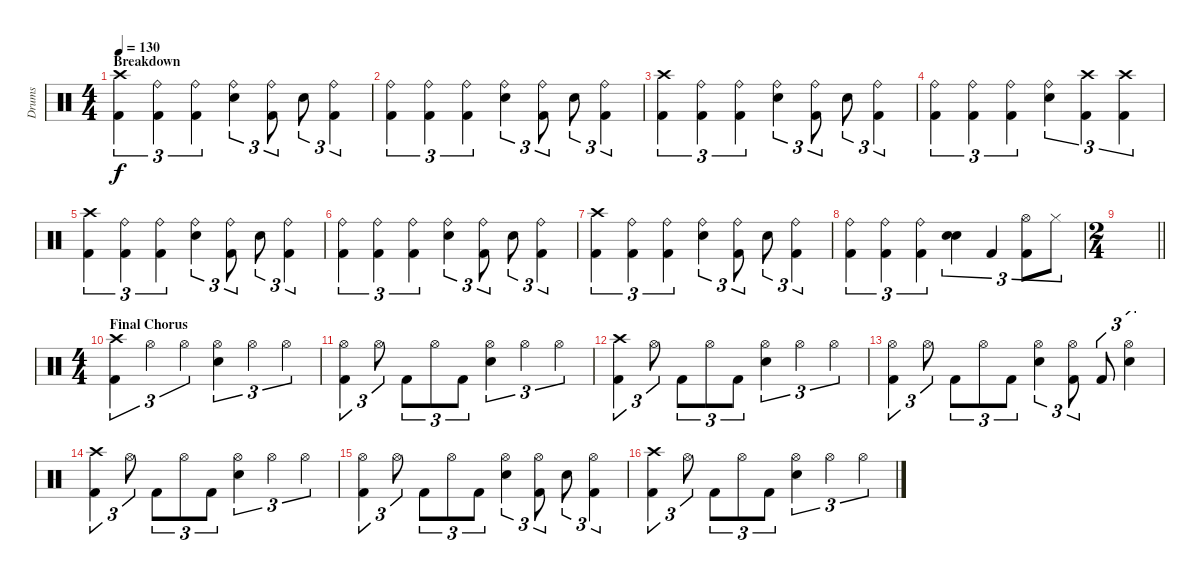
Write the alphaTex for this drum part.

\track ("Drums" "Drums") {instrument percussion}
\staff {score}
\articulation defaults
\ts (4 4)
\section ("" "Breakdown")
\tempo 130
\clef neutral
\ks c
("Crash high (hit)" "Kick (hit) 2").4{tu (3 2) dy f} ("Ride (bell)" "Kick (hit) 2").4{tu (3 2)} ("Ride (bell)" "Kick (hit) 2").4{tu (3 2)} ("Ride (bell)" "Electric Snare (hit)").4{tu (3 2)} ("Ride (bell)" "Kick (hit) 2").8{tu (3 2)} "Electric Snare (hit)".8{tu (3 2)} ("Ride (bell)" "Kick (hit) 2").4{tu (3 2)} |
("Ride (bell)" "Kick (hit) 2").4{tu (3 2)} ("Ride (bell)" "Kick (hit) 2").4{tu (3 2)} ("Ride (bell)" "Kick (hit) 2").4{tu (3 2)} ("Ride (bell)" "Electric Snare (hit)").4{tu (3 2)} ("Ride (bell)" "Kick (hit) 2").8{tu (3 2)} "Electric Snare (hit)".8{tu (3 2)} ("Ride (bell)" "Kick (hit) 2").4{tu (3 2)} |
("Crash high (hit)" "Kick (hit) 2").4{tu (3 2)} ("Ride (bell)" "Kick (hit) 2").4{tu (3 2)} ("Ride (bell)" "Kick (hit) 2").4{tu (3 2)} ("Ride (bell)" "Electric Snare (hit)").4{tu (3 2)} ("Ride (bell)" "Kick (hit) 2").8{tu (3 2)} "Electric Snare (hit)".8{tu (3 2)} ("Ride (bell)" "Kick (hit) 2").4{tu (3 2)} |
("Ride (bell)" "Kick (hit) 2").4{tu (3 2)} ("Ride (bell)" "Kick (hit) 2").4{tu (3 2)} ("Ride (bell)" "Kick (hit) 2").4{tu (3 2)} ("Ride (bell)" "Electric Snare (hit)").4{tu (3 2)} ("Crash high (hit)" "Kick (hit) 2").4{tu (3 2)} ("Crash high (hit)" "Kick (hit) 2").4{tu (3 2)} |
("Crash high (hit)" "Kick (hit) 2").4{tu (3 2)} ("Ride (bell)" "Kick (hit) 2").4{tu (3 2)} ("Ride (bell)" "Kick (hit) 2").4{tu (3 2)} ("Ride (bell)" "Electric Snare (hit)").4{tu (3 2)} ("Ride (bell)" "Kick (hit) 2").8{tu (3 2)} "Electric Snare (hit)".8{tu (3 2)} ("Ride (bell)" "Kick (hit) 2").4{tu (3 2)} |
("Ride (bell)" "Kick (hit) 2").4{tu (3 2)} ("Ride (bell)" "Kick (hit) 2").4{tu (3 2)} ("Ride (bell)" "Kick (hit) 2").4{tu (3 2)} ("Ride (bell)" "Electric Snare (hit)").4{tu (3 2)} ("Ride (bell)" "Kick (hit) 2").8{tu (3 2)} "Electric Snare (hit)".8{tu (3 2)} ("Ride (bell)" "Kick (hit) 2").4{tu (3 2)} |
("Crash high (hit)" "Kick (hit) 2").4{tu (3 2)} ("Ride (bell)" "Kick (hit) 2").4{tu (3 2)} ("Ride (bell)" "Kick (hit) 2").4{tu (3 2)} ("Ride (bell)" "Electric Snare (hit)").4{tu (3 2)} ("Ride (bell)" "Kick (hit) 2").8{tu (3 2)} "Electric Snare (hit)".8{tu (3 2)} ("Ride (bell)" "Kick (hit) 2").4{tu (3 2)} |
("Ride (bell)" "Kick (hit) 2").4{tu (3 2)} ("Ride (bell)" "Kick (hit) 2").4{tu (3 2)} ("Ride (bell)" "Kick (hit) 2").4{tu (3 2)} ("Electric Snare (hit)" "Electric Snare (hit)").4{tu (3 2)} "Kick (hit) 2".4{tu (3 2)} ("Hi-Hat (open)" "Kick (hit) 2").8{tu (3 2)} "Hi-Hat (closed)".8{tu (3 2)} |
\ts (2 4)
\barLineRight lightlight
|
\ts (4 4)
\section ("" "Final Chorus")
("Crash high (hit)" "Kick (hit) 2").4{tu (3 2)} "Hi-Hat (open)".4{tu (3 2)} "Hi-Hat (open)".4{tu (3 2)} ("Hi-Hat (open)" "Electric Snare (hit)").4{tu (3 2)} "Hi-Hat (open)".4{tu (3 2)} "Hi-Hat (open)".4{tu (3 2)} |
("Hi-Hat (open)" "Kick (hit) 2").4{tu (3 2)} "Hi-Hat (open)".8{tu (3 2)} "Kick (hit) 2".8{tu (3 2)} "Hi-Hat (open)".8{tu (3 2)} "Kick (hit) 2".8{tu (3 2)} ("Hi-Hat (open)" "Electric Snare (hit)").4{tu (3 2)} "Hi-Hat (open)".4{tu (3 2)} "Hi-Hat (open)".4{tu (3 2)} |
("Crash high (hit)" "Kick (hit) 2").4{tu (3 2)} "Hi-Hat (open)".8{tu (3 2)} "Kick (hit) 2".8{tu (3 2)} "Hi-Hat (open)".8{tu (3 2)} "Kick (hit) 2".8{tu (3 2)} ("Hi-Hat (open)" "Electric Snare (hit)").4{tu (3 2)} "Hi-Hat (open)".4{tu (3 2)} "Hi-Hat (open)".4{tu (3 2)} |
("Hi-Hat (open)" "Kick (hit) 2").4{tu (3 2)} "Hi-Hat (open)".8{tu (3 2)} "Kick (hit) 2".8{tu (3 2)} "Hi-Hat (open)".8{tu (3 2)} "Kick (hit) 2".8{tu (3 2)} ("Hi-Hat (open)" "Electric Snare (hit)").4{tu (3 2)} ("Hi-Hat (open)" "Kick (hit) 2").8{tu (3 2)} "Kick (hit) 2".8{tu (3 2)} ("Hi-Hat (open)" "Electric Snare (hit)").4{tu (3 2)} |
("Crash high (hit)" "Kick (hit) 2").4{tu (3 2)} "Hi-Hat (open)".8{tu (3 2)} "Kick (hit) 2".8{tu (3 2)} "Hi-Hat (open)".8{tu (3 2)} "Kick (hit) 2".8{tu (3 2)} ("Hi-Hat (open)" "Electric Snare (hit)").4{tu (3 2)} "Hi-Hat (open)".4{tu (3 2)} "Hi-Hat (open)".4{tu (3 2)} |
("Hi-Hat (open)" "Kick (hit) 2").4{tu (3 2)} "Hi-Hat (open)".8{tu (3 2)} "Kick (hit) 2".8{tu (3 2)} "Hi-Hat (open)".8{tu (3 2)} "Kick (hit) 2".8{tu (3 2)} ("Hi-Hat (open)" "Electric Snare (hit)").4{tu (3 2)} ("Hi-Hat (open)" "Kick (hit) 2").8{tu (3 2)} "Electric Snare (hit)".8{tu (3 2)} ("Hi-Hat (open)" "Kick (hit) 2").4{tu (3 2)} |
("Crash high (hit)" "Kick (hit) 2").4{tu (3 2)} "Hi-Hat (open)".8{tu (3 2)} "Kick (hit) 2".8{tu (3 2)} "Hi-Hat (open)".8{tu (3 2)} "Kick (hit) 2".8{tu (3 2)} ("Hi-Hat (open)" "Electric Snare (hit)").4{tu (3 2)} "Hi-Hat (open)".4{tu (3 2)} "Hi-Hat (open)".4{tu (3 2)}
